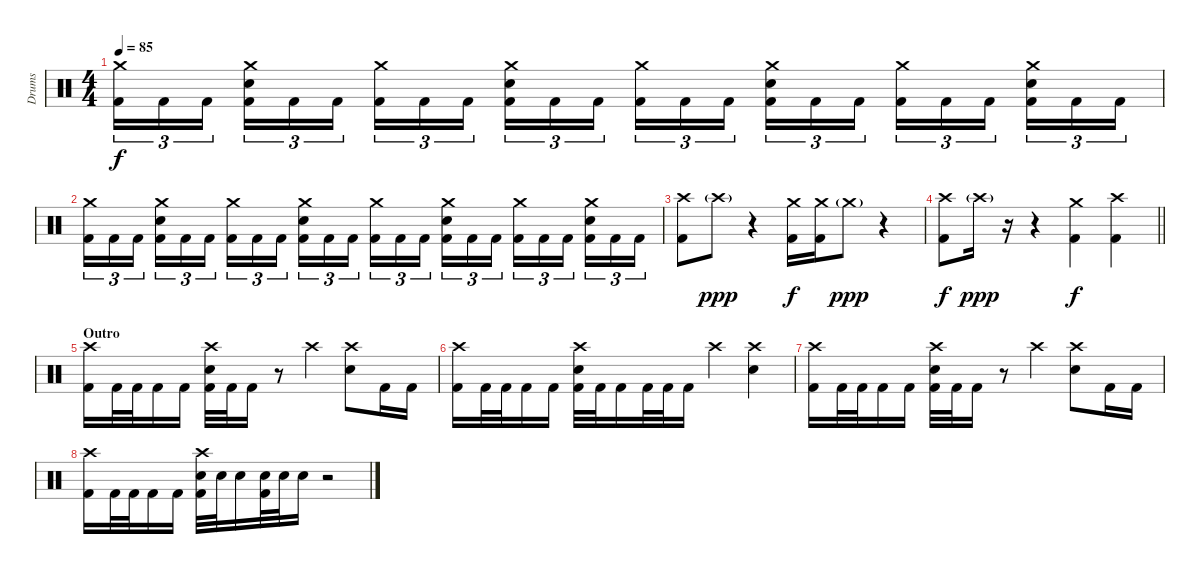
\track ("Drums" "Drums") {instrument percussion}
\staff {score}
\articulation defaults
\ts (4 4)
\tempo 85
\clef neutral
\ks c
("Crash medium (hit)" "Kick (hit) 2").16{tu (3 2) dy f} "Kick (hit) 2".16{tu (3 2)} "Kick (hit) 2".16{tu (3 2)} ("Crash medium (hit)" "Electric Snare (hit)" "Kick (hit) 2").16{tu (3 2)} "Kick (hit) 2".16{tu (3 2)} "Kick (hit) 2".16{tu (3 2)} ("Crash medium (hit)" "Kick (hit) 2").16{tu (3 2)} "Kick (hit) 2".16{tu (3 2)} "Kick (hit) 2".16{tu (3 2)} ("Crash medium (hit)" "Electric Snare (hit)" "Kick (hit) 2").16{tu (3 2)} "Kick (hit) 2".16{tu (3 2)} "Kick (hit) 2".16{tu (3 2)} ("Crash medium (hit)" "Kick (hit) 2").16{tu (3 2)} "Kick (hit) 2".16{tu (3 2)} "Kick (hit) 2".16{tu (3 2)} ("Crash medium (hit)" "Electric Snare (hit)" "Kick (hit) 2").16{tu (3 2)} "Kick (hit) 2".16{tu (3 2)} "Kick (hit) 2".16{tu (3 2)} ("Crash medium (hit)" "Kick (hit) 2").16{tu (3 2)} "Kick (hit) 2".16{tu (3 2)} "Kick (hit) 2".16{tu (3 2)} ("Crash medium (hit)" "Electric Snare (hit)" "Kick (hit) 2").16{tu (3 2)} "Kick (hit) 2".16{tu (3 2)} "Kick (hit) 2".16{tu (3 2)} |
("Crash medium (hit)" "Kick (hit) 2").16{tu (3 2)} "Kick (hit) 2".16{tu (3 2)} "Kick (hit) 2".16{tu (3 2)} ("Crash medium (hit)" "Electric Snare (hit)" "Kick (hit) 2").16{tu (3 2)} "Kick (hit) 2".16{tu (3 2)} "Kick (hit) 2".16{tu (3 2)} ("Crash medium (hit)" "Kick (hit) 2").16{tu (3 2)} "Kick (hit) 2".16{tu (3 2)} "Kick (hit) 2".16{tu (3 2)} ("Crash medium (hit)" "Electric Snare (hit)" "Kick (hit) 2").16{tu (3 2)} "Kick (hit) 2".16{tu (3 2)} "Kick (hit) 2".16{tu (3 2)} ("Crash medium (hit)" "Kick (hit) 2").16{tu (3 2)} "Kick (hit) 2".16{tu (3 2)} "Kick (hit) 2".16{tu (3 2)} ("Crash medium (hit)" "Electric Snare (hit)" "Kick (hit) 2").16{tu (3 2)} "Kick (hit) 2".16{tu (3 2)} "Kick (hit) 2".16{tu (3 2)} ("Crash medium (hit)" "Kick (hit) 2").16{tu (3 2)} "Kick (hit) 2".16{tu (3 2)} "Kick (hit) 2".16{tu (3 2)} ("Crash medium (hit)" "Electric Snare (hit)" "Kick (hit) 2").16{tu (3 2)} "Kick (hit) 2".16{tu (3 2)} "Kick (hit) 2".16{tu (3 2)} |
("Crash high (hit)" "Kick (hit) 2").8 "Crash high (hit)"{g}.8{dy ppp} r.4 ("Crash medium (hit)" "Kick (hit) 2").16{dy f} ("Crash medium (hit)" "Kick (hit) 2").16 "Crash medium (hit)"{g}.8{dy ppp} r.4 |
\barLineRight lightlight
("Crash high (hit)" "Kick (hit) 2").8{dy f} "Crash high (hit)"{g}.16{dy ppp} r.16 r.4 ("Crash medium (hit)" "Kick (hit) 2").4{dy f} ("Crash high (hit)" "Kick (hit) 2").4 |
\section ("" "Outro")
("Crash high (hit)" "Kick (hit) 2").16 "Kick (hit) 2".32 "Kick (hit) 2".32 "Kick (hit) 2".16 "Kick (hit) 2".16 ("Crash high (hit)" "Electric Snare (hit)" "Kick (hit) 2").32 "Kick (hit) 2".32 "Kick (hit) 2".16 r.8 "Crash high (hit)".4 ("Crash high (hit)" "Electric Snare (hit)").8 "Kick (hit) 2".16 "Kick (hit) 2".16 |
("Crash high (hit)" "Kick (hit) 2").16 "Kick (hit) 2".32 "Kick (hit) 2".32 "Kick (hit) 2".16 "Kick (hit) 2".16 ("Crash high (hit)" "Electric Snare (hit)" "Kick (hit) 2").32 "Kick (hit) 2".32 "Kick (hit) 2".16 "Kick (hit) 2".32 "Kick (hit) 2".32 "Kick (hit) 2".16 "Crash high (hit)".4 ("Crash high (hit)" "Electric Snare (hit)").4 |
("Crash high (hit)" "Kick (hit) 2").16 "Kick (hit) 2".32 "Kick (hit) 2".32 "Kick (hit) 2".16 "Kick (hit) 2".16 ("Crash high (hit)" "Electric Snare (hit)" "Kick (hit) 2").32 "Kick (hit) 2".32 "Kick (hit) 2".16 r.8 "Crash high (hit)".4 ("Crash high (hit)" "Electric Snare (hit)").8 "Kick (hit) 2".16 "Kick (hit) 2".16 |
("Crash high (hit)" "Kick (hit) 2").16 "Kick (hit) 2".32 "Kick (hit) 2".32 "Kick (hit) 2".16 "Kick (hit) 2".16 ("Crash high (hit)" "Electric Snare (hit)" "Kick (hit) 2").32 "Electric Snare (hit)".32 "Electric Snare (hit)".16 ("Electric Snare (hit)" "Kick (hit) 2").32 "Electric Snare (hit)".32 "Electric Snare (hit)".16 r.2
